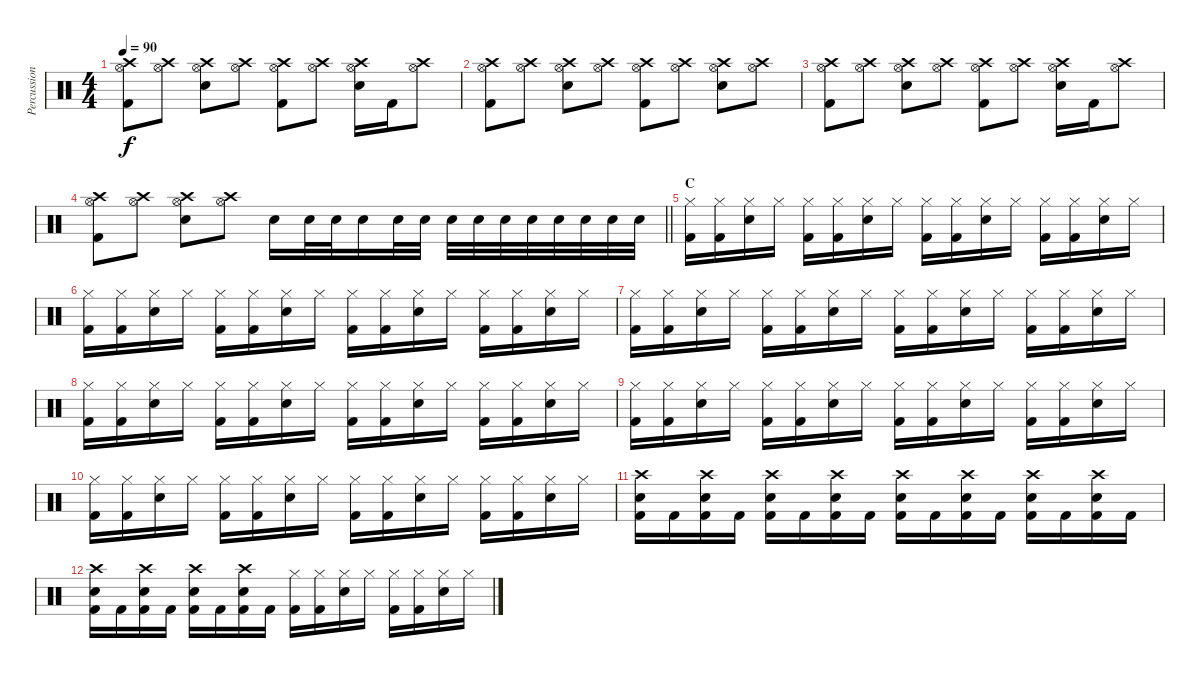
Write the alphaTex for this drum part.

\track ("Percussion" "Percussion") {instrument percussion}
\staff {score}
\articulation defaults
\ts (4 4)
\tempo 90
\clef neutral
\ks c
("Hi-Hat (open)" "Crash high (hit)" "Kick (hit) 2").8{dy f} ("Hi-Hat (open)" "Crash high (hit)").8 ("Hi-Hat (open)" "Crash high (hit)" "Snare (hit) 2").8 ("Hi-Hat (open)" "Crash high (hit)").8 ("Hi-Hat (open)" "Crash high (hit)" "Kick (hit) 2").8 ("Hi-Hat (open)" "Crash high (hit)").8 ("Hi-Hat (open)" "Crash high (hit)" "Snare (hit) 2").16 "Kick (hit) 2".16 ("Hi-Hat (open)" "Crash high (hit)").8 |
("Hi-Hat (open)" "Crash high (hit)" "Kick (hit) 2").8 ("Hi-Hat (open)" "Crash high (hit)").8 ("Hi-Hat (open)" "Crash high (hit)" "Snare (hit) 2").8 ("Hi-Hat (open)" "Crash high (hit)").8 ("Hi-Hat (open)" "Crash high (hit)" "Kick (hit) 2").8 ("Hi-Hat (open)" "Crash high (hit)").8 ("Hi-Hat (open)" "Crash high (hit)" "Snare (hit) 2").8 ("Hi-Hat (open)" "Crash high (hit)").8 |
("Hi-Hat (open)" "Crash high (hit)" "Kick (hit) 2").8 ("Hi-Hat (open)" "Crash high (hit)").8 ("Hi-Hat (open)" "Crash high (hit)" "Snare (hit) 2").8 ("Hi-Hat (open)" "Crash high (hit)").8 ("Hi-Hat (open)" "Crash high (hit)" "Kick (hit) 2").8 ("Hi-Hat (open)" "Crash high (hit)").8 ("Hi-Hat (open)" "Crash high (hit)" "Snare (hit) 2").16 "Kick (hit) 2".16 ("Hi-Hat (open)" "Crash high (hit)").8 |
\barLineRight lightlight
("Hi-Hat (open)" "Crash high (hit)" "Kick (hit) 2").8 ("Hi-Hat (open)" "Crash high (hit)").8 ("Hi-Hat (open)" "Crash high (hit)" "Snare (hit) 2").8 ("Hi-Hat (open)" "Crash high (hit)").8 "Snare (hit) 2".16 "Snare (hit) 2".32 "Snare (hit) 2".32 "Snare (hit) 2".16 "Snare (hit) 2".32 "Snare (hit) 2".32 "Snare (hit) 2".32 "Snare (hit) 2".32 "Snare (hit) 2".32 "Snare (hit) 2".32 "Snare (hit) 2".32 "Snare (hit) 2".32 "Snare (hit) 2".32 "Snare (hit) 2".32 |
\section ("" "C")
("Hi-Hat (closed)" "Kick (hit) 2").16 ("Hi-Hat (closed)" "Kick (hit) 2").16 ("Hi-Hat (closed)" "Snare (hit) 2").16 "Hi-Hat (closed)".16 ("Hi-Hat (closed)" "Kick (hit) 2").16 ("Hi-Hat (closed)" "Kick (hit) 2").16 ("Hi-Hat (closed)" "Snare (hit) 2").16 "Hi-Hat (closed)".16 ("Hi-Hat (closed)" "Kick (hit) 2").16 ("Hi-Hat (closed)" "Kick (hit) 2").16 ("Hi-Hat (closed)" "Snare (hit) 2").16 "Hi-Hat (closed)".16 ("Hi-Hat (closed)" "Kick (hit) 2").16 ("Hi-Hat (closed)" "Kick (hit) 2").16 ("Hi-Hat (closed)" "Snare (hit) 2").16 "Hi-Hat (closed)".16 |
("Hi-Hat (closed)" "Kick (hit) 2").16 ("Hi-Hat (closed)" "Kick (hit) 2").16 ("Hi-Hat (closed)" "Snare (hit) 2").16 "Hi-Hat (closed)".16 ("Hi-Hat (closed)" "Kick (hit) 2").16 ("Hi-Hat (closed)" "Kick (hit) 2").16 ("Hi-Hat (closed)" "Snare (hit) 2").16 "Hi-Hat (closed)".16 ("Hi-Hat (closed)" "Kick (hit) 2").16 ("Hi-Hat (closed)" "Kick (hit) 2").16 ("Hi-Hat (closed)" "Snare (hit) 2").16 "Hi-Hat (closed)".16 ("Hi-Hat (closed)" "Kick (hit) 2").16 ("Hi-Hat (closed)" "Kick (hit) 2").16 ("Hi-Hat (closed)" "Snare (hit) 2").16 "Hi-Hat (closed)".16 |
("Hi-Hat (closed)" "Kick (hit) 2").16 ("Hi-Hat (closed)" "Kick (hit) 2").16 ("Hi-Hat (closed)" "Snare (hit) 2").16 "Hi-Hat (closed)".16 ("Hi-Hat (closed)" "Kick (hit) 2").16 ("Hi-Hat (closed)" "Kick (hit) 2").16 ("Hi-Hat (closed)" "Snare (hit) 2").16 "Hi-Hat (closed)".16 ("Hi-Hat (closed)" "Kick (hit) 2").16 ("Hi-Hat (closed)" "Kick (hit) 2").16 ("Hi-Hat (closed)" "Snare (hit) 2").16 "Hi-Hat (closed)".16 ("Hi-Hat (closed)" "Kick (hit) 2").16 ("Hi-Hat (closed)" "Kick (hit) 2").16 ("Hi-Hat (closed)" "Snare (hit) 2").16 "Hi-Hat (closed)".16 |
("Hi-Hat (closed)" "Kick (hit) 2").16 ("Hi-Hat (closed)" "Kick (hit) 2").16 ("Hi-Hat (closed)" "Snare (hit) 2").16 "Hi-Hat (closed)".16 ("Hi-Hat (closed)" "Kick (hit) 2").16 ("Hi-Hat (closed)" "Kick (hit) 2").16 ("Hi-Hat (closed)" "Snare (hit) 2").16 "Hi-Hat (closed)".16 ("Hi-Hat (closed)" "Kick (hit) 2").16 ("Hi-Hat (closed)" "Kick (hit) 2").16 ("Hi-Hat (closed)" "Snare (hit) 2").16 "Hi-Hat (closed)".16 ("Hi-Hat (closed)" "Kick (hit) 2").16 ("Hi-Hat (closed)" "Kick (hit) 2").16 ("Hi-Hat (closed)" "Snare (hit) 2").16 "Hi-Hat (closed)".16 |
("Hi-Hat (closed)" "Kick (hit) 2").16 ("Hi-Hat (closed)" "Kick (hit) 2").16 ("Hi-Hat (closed)" "Snare (hit) 2").16 "Hi-Hat (closed)".16 ("Hi-Hat (closed)" "Kick (hit) 2").16 ("Hi-Hat (closed)" "Kick (hit) 2").16 ("Hi-Hat (closed)" "Snare (hit) 2").16 "Hi-Hat (closed)".16 ("Hi-Hat (closed)" "Kick (hit) 2").16 ("Hi-Hat (closed)" "Kick (hit) 2").16 ("Hi-Hat (closed)" "Snare (hit) 2").16 "Hi-Hat (closed)".16 ("Hi-Hat (closed)" "Kick (hit) 2").16 ("Hi-Hat (closed)" "Kick (hit) 2").16 ("Hi-Hat (closed)" "Snare (hit) 2").16 "Hi-Hat (closed)".16 |
("Hi-Hat (closed)" "Kick (hit) 2").16 ("Hi-Hat (closed)" "Kick (hit) 2").16 ("Hi-Hat (closed)" "Snare (hit) 2").16 "Hi-Hat (closed)".16 ("Hi-Hat (closed)" "Kick (hit) 2").16 ("Hi-Hat (closed)" "Kick (hit) 2").16 ("Hi-Hat (closed)" "Snare (hit) 2").16 "Hi-Hat (closed)".16 ("Hi-Hat (closed)" "Kick (hit) 2").16 ("Hi-Hat (closed)" "Kick (hit) 2").16 ("Hi-Hat (closed)" "Snare (hit) 2").16 "Hi-Hat (closed)".16 ("Hi-Hat (closed)" "Kick (hit) 2").16 ("Hi-Hat (closed)" "Kick (hit) 2").16 ("Hi-Hat (closed)" "Snare (hit) 2").16 "Hi-Hat (closed)".16 |
("Crash high (hit)" "Snare (hit) 2" "Kick (hit) 2").16 "Kick (hit) 2".16 ("Crash high (hit)" "Snare (hit) 2" "Kick (hit) 2").16 "Kick (hit) 2".16 ("Crash high (hit)" "Snare (hit) 2" "Kick (hit) 2").16 "Kick (hit) 2".16 ("Crash high (hit)" "Snare (hit) 2" "Kick (hit) 2").16 "Kick (hit) 2".16 ("Crash high (hit)" "Snare (hit) 2" "Kick (hit) 2").16 "Kick (hit) 2".16 ("Crash high (hit)" "Snare (hit) 2" "Kick (hit) 2").16 "Kick (hit) 2".16 ("Crash high (hit)" "Snare (hit) 2" "Kick (hit) 2").16 "Kick (hit) 2".16 ("Crash high (hit)" "Snare (hit) 2" "Kick (hit) 2").16 "Kick (hit) 2".16 |
("Crash high (hit)" "Snare (hit) 2" "Kick (hit) 2").16 "Kick (hit) 2".16 ("Crash high (hit)" "Snare (hit) 2" "Kick (hit) 2").16 "Kick (hit) 2".16 ("Crash high (hit)" "Snare (hit) 2" "Kick (hit) 2").16 "Kick (hit) 2".16 ("Crash high (hit)" "Snare (hit) 2" "Kick (hit) 2").16 "Kick (hit) 2".16 ("Hi-Hat (closed)" "Kick (hit) 2").16 ("Hi-Hat (closed)" "Kick (hit) 2").16 ("Hi-Hat (closed)" "Snare (hit) 2").16 "Hi-Hat (closed)".16 ("Hi-Hat (closed)" "Kick (hit) 2").16 ("Hi-Hat (closed)" "Kick (hit) 2").16 ("Hi-Hat (closed)" "Snare (hit) 2").16 "Hi-Hat (closed)".16
